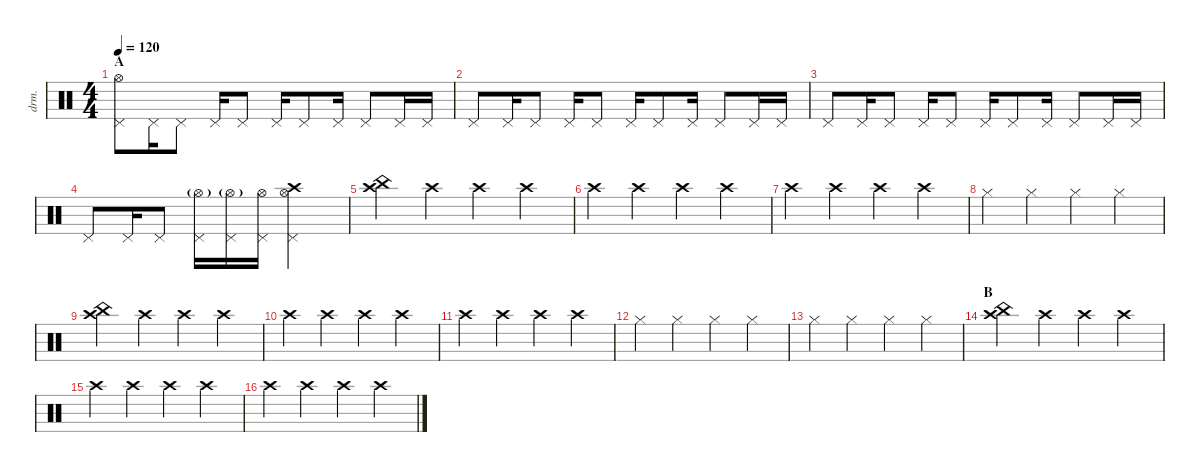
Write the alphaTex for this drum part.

\defaultSystemsLayout 4
\hideDynamics
\bracketExtendMode nobrackets
\otherSystemsTrackNameOrientation horizontal
\track ("Batterie" "drm.") {instrument percussion}
\staff {score}
\articulation defaults
\ts (4 4)
\section ("" "A")
\tempo 120
\clef neutral
\ks c
("Pedal Hi-Hat (hit)" "Hi-Hat (open)").8{dy f} "Pedal Hi-Hat (hit)".16 "Pedal Hi-Hat (hit)".8 "Pedal Hi-Hat (hit)".16 "Pedal Hi-Hat (hit)".8 "Pedal Hi-Hat (hit)".16 "Pedal Hi-Hat (hit)".8 "Pedal Hi-Hat (hit)".16 "Pedal Hi-Hat (hit)".8 "Pedal Hi-Hat (hit)".16 "Pedal Hi-Hat (hit)".16 |
"Pedal Hi-Hat (hit)".8 "Pedal Hi-Hat (hit)".16 "Pedal Hi-Hat (hit)".8 "Pedal Hi-Hat (hit)".16 "Pedal Hi-Hat (hit)".8 "Pedal Hi-Hat (hit)".16 "Pedal Hi-Hat (hit)".8 "Pedal Hi-Hat (hit)".16 "Pedal Hi-Hat (hit)".8 "Pedal Hi-Hat (hit)".16 "Pedal Hi-Hat (hit)".16 |
"Pedal Hi-Hat (hit)".8 "Pedal Hi-Hat (hit)".16 "Pedal Hi-Hat (hit)".8 "Pedal Hi-Hat (hit)".16 "Pedal Hi-Hat (hit)".8 "Pedal Hi-Hat (hit)".16 "Pedal Hi-Hat (hit)".8 "Pedal Hi-Hat (hit)".16 "Pedal Hi-Hat (hit)".8 "Pedal Hi-Hat (hit)".16 "Pedal Hi-Hat (hit)".16 |
"Pedal Hi-Hat (hit)".8 "Pedal Hi-Hat (hit)".16 "Pedal Hi-Hat (hit)".8 ("Pedal Hi-Hat (hit)" "Hi-Hat (open)"{g}).16 ("Pedal Hi-Hat (hit)" "Hi-Hat (open)"{g}).16 ("Pedal Hi-Hat (hit)" "Hi-Hat (open)").16 ("Pedal Hi-Hat (hit)" "Hi-Hat (open)" "Crash high (hit)").2 |
("China (hit)" "Crash high (hit)").4 "Crash high (hit)".4 "Crash high (hit)".4 "Crash high (hit)".4 |
"Crash high (hit)".4 "Crash high (hit)".4 "Crash high (hit)".4 "Crash high (hit)".4 |
"Crash high (hit)".4 "Crash high (hit)".4 "Crash high (hit)".4 "Crash high (hit)".4 |
"Hi-Hat (closed)".4 "Hi-Hat (closed)".4 "Hi-Hat (closed)".4 "Hi-Hat (closed)".4 |
("China (hit)" "Crash high (hit)").4 "Crash high (hit)".4 "Crash high (hit)".4 "Crash high (hit)".4 |
"Crash high (hit)".4 "Crash high (hit)".4 "Crash high (hit)".4 "Crash high (hit)".4 |
"Crash high (hit)".4 "Crash high (hit)".4 "Crash high (hit)".4 "Crash high (hit)".4 |
"Hi-Hat (closed)".4 "Hi-Hat (closed)".4 "Hi-Hat (closed)".4 "Hi-Hat (closed)".4 |
"Hi-Hat (closed)".4 "Hi-Hat (closed)".4 "Hi-Hat (closed)".4 "Hi-Hat (closed)".4 |
\section ("" "B")
("China (hit)" "Crash high (hit)").4 "Crash high (hit)".4 "Crash high (hit)".4 "Crash high (hit)".4 |
"Crash high (hit)".4 "Crash high (hit)".4 "Crash high (hit)".4 "Crash high (hit)".4 |
"Crash high (hit)".4 "Crash high (hit)".4 "Crash high (hit)".4 "Crash high (hit)".4
